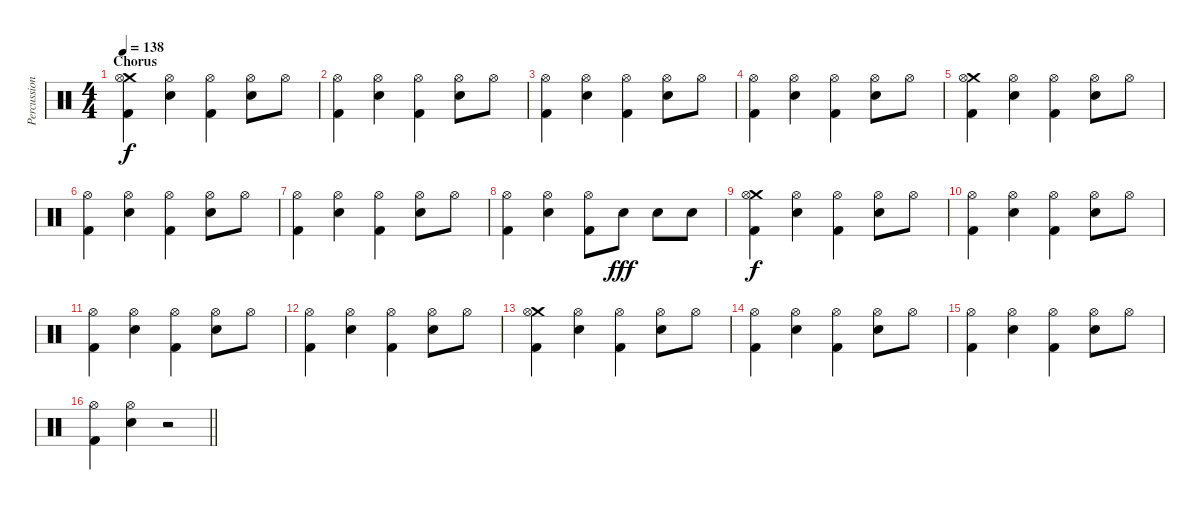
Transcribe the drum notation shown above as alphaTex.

\track ("Percussion" "Percussion") {instrument percussion}
\staff {score}
\articulation defaults
\ts (4 4)
\section ("" "Chorus")
\tempo 138
\clef neutral
\ks c
("Crash medium (hit)" "Hi-Hat (open)" "Kick (hit) 2").4{dy f} ("Snare (hit) 2" "Hi-Hat (open)").4 ("Hi-Hat (open)" "Kick (hit) 2").4 ("Snare (hit) 2" "Hi-Hat (open)").8 "Hi-Hat (open)".8 |
("Hi-Hat (open)" "Kick (hit) 2").4 ("Snare (hit) 2" "Hi-Hat (open)").4 ("Hi-Hat (open)" "Kick (hit) 2").4 ("Snare (hit) 2" "Hi-Hat (open)").8 "Hi-Hat (open)".8 |
("Hi-Hat (open)" "Kick (hit) 2").4 ("Snare (hit) 2" "Hi-Hat (open)").4 ("Hi-Hat (open)" "Kick (hit) 2").4 ("Snare (hit) 2" "Hi-Hat (open)").8 "Hi-Hat (open)".8 |
("Hi-Hat (open)" "Kick (hit) 2").4 ("Snare (hit) 2" "Hi-Hat (open)").4 ("Hi-Hat (open)" "Kick (hit) 2").4 ("Snare (hit) 2" "Hi-Hat (open)").8 "Hi-Hat (open)".8 |
("Crash medium (hit)" "Hi-Hat (open)" "Kick (hit) 2").4 ("Snare (hit) 2" "Hi-Hat (open)").4 ("Hi-Hat (open)" "Kick (hit) 2").4 ("Snare (hit) 2" "Hi-Hat (open)").8 "Hi-Hat (open)".8 |
("Hi-Hat (open)" "Kick (hit) 2").4 ("Snare (hit) 2" "Hi-Hat (open)").4 ("Hi-Hat (open)" "Kick (hit) 2").4 ("Snare (hit) 2" "Hi-Hat (open)").8 "Hi-Hat (open)".8 |
("Hi-Hat (open)" "Kick (hit) 2").4 ("Snare (hit) 2" "Hi-Hat (open)").4 ("Hi-Hat (open)" "Kick (hit) 2").4 ("Snare (hit) 2" "Hi-Hat (open)").8 "Hi-Hat (open)".8 |
("Hi-Hat (open)" "Kick (hit) 2").4 ("Snare (hit) 2" "Hi-Hat (open)").4 ("Hi-Hat (open)" "Kick (hit) 2").8 "Snare (hit) 2".8{dy fff} "Snare (hit) 2".8 "Snare (hit) 2".8 |
("Crash medium (hit)" "Hi-Hat (open)" "Kick (hit) 2").4{dy f} ("Snare (hit) 2" "Hi-Hat (open)").4 ("Hi-Hat (open)" "Kick (hit) 2").4 ("Snare (hit) 2" "Hi-Hat (open)").8 "Hi-Hat (open)".8 |
("Hi-Hat (open)" "Kick (hit) 2").4 ("Snare (hit) 2" "Hi-Hat (open)").4 ("Hi-Hat (open)" "Kick (hit) 2").4 ("Snare (hit) 2" "Hi-Hat (open)").8 "Hi-Hat (open)".8 |
("Hi-Hat (open)" "Kick (hit) 2").4 ("Snare (hit) 2" "Hi-Hat (open)").4 ("Hi-Hat (open)" "Kick (hit) 2").4 ("Snare (hit) 2" "Hi-Hat (open)").8 "Hi-Hat (open)".8 |
("Hi-Hat (open)" "Kick (hit) 2").4 ("Snare (hit) 2" "Hi-Hat (open)").4 ("Hi-Hat (open)" "Kick (hit) 2").4 ("Snare (hit) 2" "Hi-Hat (open)").8 "Hi-Hat (open)".8 |
("Crash medium (hit)" "Hi-Hat (open)" "Kick (hit) 2").4 ("Snare (hit) 2" "Hi-Hat (open)").4 ("Hi-Hat (open)" "Kick (hit) 2").4 ("Snare (hit) 2" "Hi-Hat (open)").8 "Hi-Hat (open)".8 |
("Hi-Hat (open)" "Kick (hit) 2").4 ("Snare (hit) 2" "Hi-Hat (open)").4 ("Hi-Hat (open)" "Kick (hit) 2").4 ("Snare (hit) 2" "Hi-Hat (open)").8 "Hi-Hat (open)".8 |
("Hi-Hat (open)" "Kick (hit) 2").4 ("Snare (hit) 2" "Hi-Hat (open)").4 ("Hi-Hat (open)" "Kick (hit) 2").4 ("Snare (hit) 2" "Hi-Hat (open)").8 "Hi-Hat (open)".8 |
\barLineRight lightlight
("Hi-Hat (open)" "Kick (hit) 2").4 ("Snare (hit) 2" "Hi-Hat (open)").4 r.2
